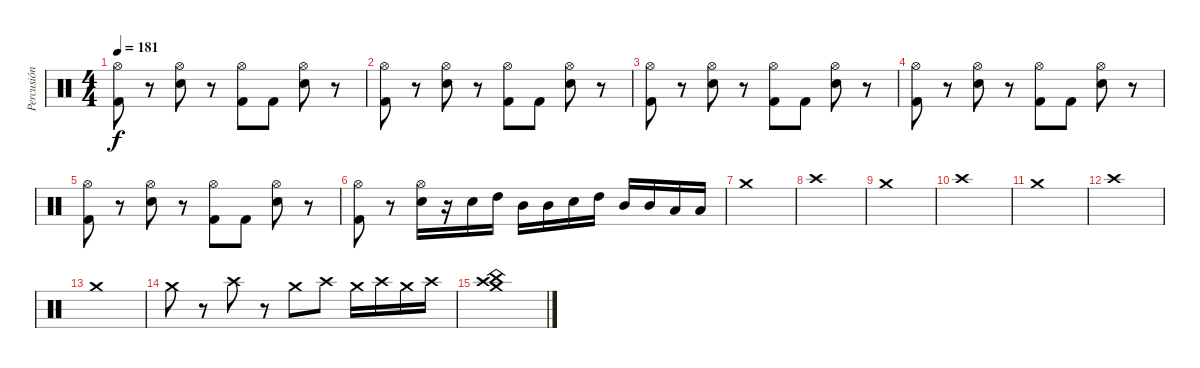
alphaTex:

\track ("Percusión" "Percusión") {instrument percussion}
\staff {score}
\articulation defaults
\ts (4 4)
\tempo 181
\clef neutral
\ks c
("Hi-Hat (open)" "Kick (hit) 2").8{dy f} r.8 ("Hi-Hat (open)" "Electric Snare (hit)").8 r.8 ("Hi-Hat (open)" "Kick (hit) 2").8 "Kick (hit) 2".8 ("Hi-Hat (open)" "Electric Snare (hit)").8 r.8 |
("Hi-Hat (open)" "Kick (hit) 2").8 r.8 ("Hi-Hat (open)" "Electric Snare (hit)").8 r.8 ("Hi-Hat (open)" "Kick (hit) 2").8 "Kick (hit) 2".8 ("Hi-Hat (open)" "Electric Snare (hit)").8 r.8 |
("Hi-Hat (open)" "Kick (hit) 2").8 r.8 ("Hi-Hat (open)" "Electric Snare (hit)").8 r.8 ("Hi-Hat (open)" "Kick (hit) 2").8 "Kick (hit) 2".8 ("Hi-Hat (open)" "Electric Snare (hit)").8 r.8 |
("Hi-Hat (open)" "Kick (hit) 2").8 r.8 ("Hi-Hat (open)" "Electric Snare (hit)").8 r.8 ("Hi-Hat (open)" "Kick (hit) 2").8 "Kick (hit) 2".8 ("Hi-Hat (open)" "Electric Snare (hit)").8 r.8 |
("Hi-Hat (open)" "Kick (hit) 2").8 r.8 ("Hi-Hat (open)" "Electric Snare (hit)").8 r.8 ("Hi-Hat (open)" "Kick (hit) 2").8 "Kick (hit) 2".8 ("Hi-Hat (open)" "Electric Snare (hit)").8 r.8 |
("Hi-Hat (open)" "Kick (hit) 2").8 r.8 ("Hi-Hat (open)" "Electric Snare (hit)").16 r.16 "Electric Snare (hit)".16 "High Tom (hit)".16 "Mid Tom (hit)".16 "Mid Tom (hit)".16 "Electric Snare (hit)".16 "High Tom (hit)".16 "Mid Tom (hit)".16 "Mid Tom (hit)".16 "Low Tom (hit)".16 "Low Tom (hit)".16 |
"Crash medium (hit)".1 |
"Crash high (hit)".1 |
"Crash medium (hit)".1 |
"Crash high (hit)".1 |
"Crash medium (hit)".1 |
"Crash high (hit)".1 |
"Crash medium (hit)".1 |
"Crash medium (hit)".8 r.8 "Crash high (hit)".8 r.8 "Crash medium (hit)".8 "Crash high (hit)".8 "Crash medium (hit)".16 "Crash high (hit)".16 "Crash medium (hit)".16 "Crash high (hit)".16 |
("Crash medium (hit)" "Crash high (hit)" "China (hit)").1
